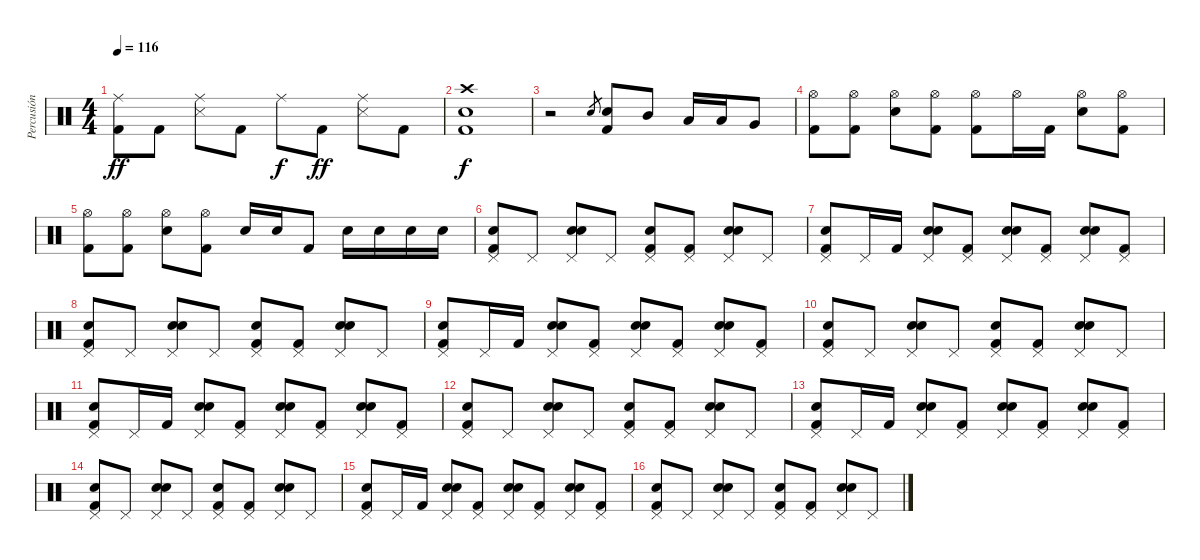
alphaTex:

\track ("Percusión" "Percusión") {instrument percussion}
\staff {score}
\articulation defaults
\ts (4 4)
\tempo 116
\clef neutral
\ks c
("Ride (middle)" "Kick (hit) 2").8{dy ff} "Kick (hit) 2".8 ("Ride (middle)" "Snare (side stick) 3").8 "Kick (hit) 2".8 "Ride (middle)".8{dy f} "Kick (hit) 2".8{dy ff} ("Ride (middle)" "Snare (side stick) 3").8 "Kick (hit) 2".8 |
("Crash high (hit)" "Electric Snare (hit)" "Kick (hit) 2").1{dy f} |
r.2 "Snare (hit) 2".8{gr} ("Snare (hit) 2" "Kick (hit) 2").8 "Mid Tom (hit)".8 "Low Tom (hit)".16 "Low Tom (hit)".16 "Very Low Tom (hit)".8 |
("Hi-Hat (open)" "Kick (hit) 2").8 ("Hi-Hat (open)" "Kick (hit) 2").8 ("Hi-Hat (open)" "Snare (hit) 2").8 ("Hi-Hat (open)" "Kick (hit) 2").8 ("Hi-Hat (open)" "Kick (hit) 2").8 "Hi-Hat (open)".16 "Kick (hit) 2".16 ("Hi-Hat (open)" "Snare (hit) 2").8 ("Hi-Hat (open)" "Kick (hit) 2").8 |
("Hi-Hat (open)" "Kick (hit) 2").8 ("Hi-Hat (open)" "Kick (hit) 2").8 ("Hi-Hat (open)" "Snare (hit) 2").8 ("Hi-Hat (open)" "Kick (hit) 2").8 "Snare (hit) 2".16 "Snare (hit) 2".16 "Kick (hit) 2".8 "Snare (hit) 2".16 "Snare (hit) 2".16 "Snare (hit) 2".16 "Snare (hit) 2".16 |
("Hand Clap (hit)" "Pedal Hi-Hat (hit)" "Kick (hit) 2").8 "Pedal Hi-Hat (hit)".8 ("Hand Clap (hit)" "Pedal Hi-Hat (hit)" "Snare (hit) 2").8 "Pedal Hi-Hat (hit)".8 ("Hand Clap (hit)" "Pedal Hi-Hat (hit)" "Kick (hit) 2").8 ("Pedal Hi-Hat (hit)" "Kick (hit) 2").8 ("Hand Clap (hit)" "Pedal Hi-Hat (hit)" "Snare (hit) 2").8 "Pedal Hi-Hat (hit)".8 |
("Hand Clap (hit)" "Pedal Hi-Hat (hit)" "Kick (hit) 2").8 "Pedal Hi-Hat (hit)".16 "Kick (hit) 2".16 ("Hand Clap (hit)" "Pedal Hi-Hat (hit)" "Snare (hit) 2").8 ("Pedal Hi-Hat (hit)" "Kick (hit) 2").8 ("Hand Clap (hit)" "Pedal Hi-Hat (hit)" "Snare (hit) 2").8 ("Pedal Hi-Hat (hit)" "Kick (hit) 2").8 ("Hand Clap (hit)" "Pedal Hi-Hat (hit)" "Snare (hit) 2").8 ("Pedal Hi-Hat (hit)" "Kick (hit) 2").8 |
("Hand Clap (hit)" "Pedal Hi-Hat (hit)" "Kick (hit) 2").8 "Pedal Hi-Hat (hit)".8 ("Hand Clap (hit)" "Pedal Hi-Hat (hit)" "Snare (hit) 2").8 "Pedal Hi-Hat (hit)".8 ("Hand Clap (hit)" "Pedal Hi-Hat (hit)" "Kick (hit) 2").8 ("Pedal Hi-Hat (hit)" "Kick (hit) 2").8 ("Hand Clap (hit)" "Pedal Hi-Hat (hit)" "Snare (hit) 2").8 "Pedal Hi-Hat (hit)".8 |
("Hand Clap (hit)" "Pedal Hi-Hat (hit)" "Kick (hit) 2").8 "Pedal Hi-Hat (hit)".16 "Kick (hit) 2".16 ("Hand Clap (hit)" "Pedal Hi-Hat (hit)" "Snare (hit) 2").8 ("Pedal Hi-Hat (hit)" "Kick (hit) 2").8 ("Hand Clap (hit)" "Pedal Hi-Hat (hit)" "Snare (hit) 2").8 ("Pedal Hi-Hat (hit)" "Kick (hit) 2").8 ("Hand Clap (hit)" "Pedal Hi-Hat (hit)" "Snare (hit) 2").8 ("Pedal Hi-Hat (hit)" "Kick (hit) 2").8 |
("Hand Clap (hit)" "Pedal Hi-Hat (hit)" "Kick (hit) 2").8 "Pedal Hi-Hat (hit)".8 ("Hand Clap (hit)" "Pedal Hi-Hat (hit)" "Snare (hit) 2").8 "Pedal Hi-Hat (hit)".8 ("Hand Clap (hit)" "Pedal Hi-Hat (hit)" "Kick (hit) 2").8 ("Pedal Hi-Hat (hit)" "Kick (hit) 2").8 ("Hand Clap (hit)" "Pedal Hi-Hat (hit)" "Snare (hit) 2").8 "Pedal Hi-Hat (hit)".8 |
("Hand Clap (hit)" "Pedal Hi-Hat (hit)" "Kick (hit) 2").8 "Pedal Hi-Hat (hit)".16 "Kick (hit) 2".16 ("Hand Clap (hit)" "Pedal Hi-Hat (hit)" "Snare (hit) 2").8 ("Pedal Hi-Hat (hit)" "Kick (hit) 2").8 ("Hand Clap (hit)" "Pedal Hi-Hat (hit)" "Snare (hit) 2").8 ("Pedal Hi-Hat (hit)" "Kick (hit) 2").8 ("Hand Clap (hit)" "Pedal Hi-Hat (hit)" "Snare (hit) 2").8 ("Pedal Hi-Hat (hit)" "Kick (hit) 2").8 |
("Hand Clap (hit)" "Pedal Hi-Hat (hit)" "Kick (hit) 2").8 "Pedal Hi-Hat (hit)".8 ("Hand Clap (hit)" "Pedal Hi-Hat (hit)" "Snare (hit) 2").8 "Pedal Hi-Hat (hit)".8 ("Hand Clap (hit)" "Pedal Hi-Hat (hit)" "Kick (hit) 2").8 ("Pedal Hi-Hat (hit)" "Kick (hit) 2").8 ("Hand Clap (hit)" "Pedal Hi-Hat (hit)" "Snare (hit) 2").8 "Pedal Hi-Hat (hit)".8 |
("Hand Clap (hit)" "Pedal Hi-Hat (hit)" "Kick (hit) 2").8 "Pedal Hi-Hat (hit)".16 "Kick (hit) 2".16 ("Hand Clap (hit)" "Pedal Hi-Hat (hit)" "Snare (hit) 2").8 ("Pedal Hi-Hat (hit)" "Kick (hit) 2").8 ("Hand Clap (hit)" "Pedal Hi-Hat (hit)" "Snare (hit) 2").8 ("Pedal Hi-Hat (hit)" "Kick (hit) 2").8 ("Hand Clap (hit)" "Pedal Hi-Hat (hit)" "Snare (hit) 2").8 ("Pedal Hi-Hat (hit)" "Kick (hit) 2").8 |
("Hand Clap (hit)" "Pedal Hi-Hat (hit)" "Kick (hit) 2").8 "Pedal Hi-Hat (hit)".8 ("Hand Clap (hit)" "Pedal Hi-Hat (hit)" "Snare (hit) 2").8 "Pedal Hi-Hat (hit)".8 ("Hand Clap (hit)" "Pedal Hi-Hat (hit)" "Kick (hit) 2").8 ("Pedal Hi-Hat (hit)" "Kick (hit) 2").8 ("Hand Clap (hit)" "Pedal Hi-Hat (hit)" "Snare (hit) 2").8 "Pedal Hi-Hat (hit)".8 |
("Hand Clap (hit)" "Pedal Hi-Hat (hit)" "Kick (hit) 2").8 "Pedal Hi-Hat (hit)".16 "Kick (hit) 2".16 ("Hand Clap (hit)" "Pedal Hi-Hat (hit)" "Snare (hit) 2").8 ("Pedal Hi-Hat (hit)" "Kick (hit) 2").8 ("Hand Clap (hit)" "Pedal Hi-Hat (hit)" "Snare (hit) 2").8 ("Pedal Hi-Hat (hit)" "Kick (hit) 2").8 ("Hand Clap (hit)" "Pedal Hi-Hat (hit)" "Snare (hit) 2").8 ("Pedal Hi-Hat (hit)" "Kick (hit) 2").8 |
("Hand Clap (hit)" "Pedal Hi-Hat (hit)" "Kick (hit) 2").8 "Pedal Hi-Hat (hit)".8 ("Hand Clap (hit)" "Pedal Hi-Hat (hit)" "Snare (hit) 2").8 "Pedal Hi-Hat (hit)".8 ("Hand Clap (hit)" "Pedal Hi-Hat (hit)" "Kick (hit) 2").8 ("Pedal Hi-Hat (hit)" "Kick (hit) 2").8 ("Hand Clap (hit)" "Pedal Hi-Hat (hit)" "Snare (hit) 2").8 "Pedal Hi-Hat (hit)".8
